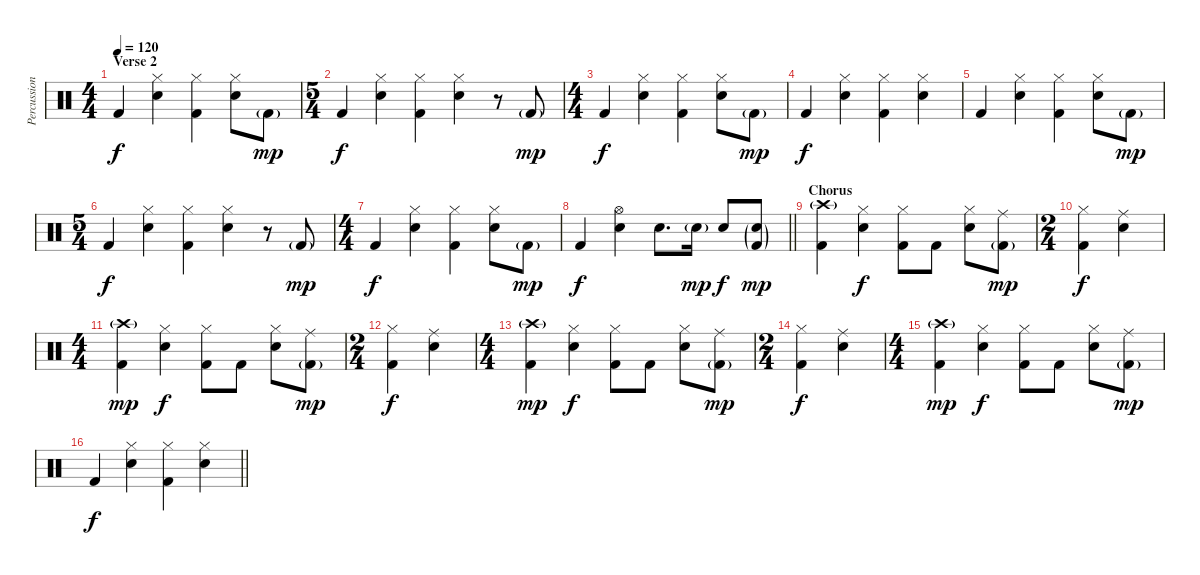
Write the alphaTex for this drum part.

\track ("Percussion" "Percussion") {instrument percussion}
\staff {score}
\articulation defaults
\ts (4 4)
\section ("" "Verse 2")
\tempo 120
\clef neutral
\ks c "Kick (hit) 2".4{dy f}
("Hi-Hat (closed)" "Snare (hit) 2").4 ("Hi-Hat (closed)" "Kick (hit) 2").4 ("Hi-Hat (closed)" "Snare (hit) 2").8 "Kick (hit) 2"{g}.8{dy mp} |
\ts (5 4)
"Kick (hit) 2".4{dy f} ("Hi-Hat (closed)" "Snare (hit) 2").4 ("Hi-Hat (closed)" "Kick (hit) 2").4 ("Hi-Hat (closed)" "Snare (hit) 2").4 r.8 "Kick (hit) 2"{g}.8{dy mp} |
\ts (4 4)
"Kick (hit) 2".4{dy f} ("Hi-Hat (closed)" "Snare (hit) 2").4 ("Hi-Hat (closed)" "Kick (hit) 2").4 ("Hi-Hat (closed)" "Snare (hit) 2").8 "Kick (hit) 2"{g}.8{dy mp} |
"Kick (hit) 2".4{dy f} ("Hi-Hat (closed)" "Snare (hit) 2").4 ("Hi-Hat (closed)" "Kick (hit) 2").4 ("Hi-Hat (closed)" "Snare (hit) 2").4 |
"Kick (hit) 2".4 ("Hi-Hat (closed)" "Snare (hit) 2").4 ("Hi-Hat (closed)" "Kick (hit) 2").4 ("Hi-Hat (closed)" "Snare (hit) 2").8 "Kick (hit) 2"{g}.8{dy mp} |
\ts (5 4)
"Kick (hit) 2".4{dy f} ("Hi-Hat (closed)" "Snare (hit) 2").4 ("Hi-Hat (closed)" "Kick (hit) 2").4 ("Hi-Hat (closed)" "Snare (hit) 2").4 r.8 "Kick (hit) 2"{g}.8{dy mp} |
\ts (4 4)
"Kick (hit) 2".4{dy f} ("Hi-Hat (closed)" "Snare (hit) 2").4 ("Hi-Hat (closed)" "Kick (hit) 2").4 ("Hi-Hat (closed)" "Snare (hit) 2").8 "Kick (hit) 2"{g}.8{dy mp} |
\barLineRight lightlight "Kick (hit) 2".4{dy f}
("Hi-Hat (open)" "Snare (hit) 2").4 "Snare (hit) 2".8{d} "Snare (hit) 2"{g}.16{dy mp} "Snare (hit) 2".8{dy f} ("Snare (hit) 2"{g} "Kick (hit) 2"{g}).8{dy mp} |
\section ("" "Chorus")
("Crash high (hit)"{g} "Kick (hit) 2").4 ("Hi-Hat (closed)" "Snare (hit) 2").4{dy f} ("Hi-Hat (closed)" "Kick (hit) 2").8 "Kick (hit) 2".8 ("Hi-Hat (closed)" "Snare (hit) 2").8 ("Ride (middle)" "Kick (hit) 2"{g}).8{dy mp} |
\ts (2 4)
("Hi-Hat (closed)" "Kick (hit) 2").4{dy f} ("Ride (middle)" "Snare (hit) 2").4 |
\ts (4 4)
("Crash high (hit)"{g} "Kick (hit) 2").4{dy mp} ("Hi-Hat (closed)" "Snare (hit) 2").4{dy f} ("Hi-Hat (closed)" "Kick (hit) 2").8 "Kick (hit) 2".8 ("Hi-Hat (closed)" "Snare (hit) 2").8 ("Ride (middle)" "Kick (hit) 2"{g}).8{dy mp} |
\ts (2 4)
("Hi-Hat (closed)" "Kick (hit) 2").4{dy f} ("Ride (middle)" "Snare (hit) 2").4 |
\ts (4 4)
("Crash high (hit)"{g} "Kick (hit) 2").4{dy mp} ("Hi-Hat (closed)" "Snare (hit) 2").4{dy f} ("Hi-Hat (closed)" "Kick (hit) 2").8 "Kick (hit) 2".8 ("Hi-Hat (closed)" "Snare (hit) 2").8 ("Ride (middle)" "Kick (hit) 2"{g}).8{dy mp} |
\ts (2 4)
("Hi-Hat (closed)" "Kick (hit) 2").4{dy f} ("Ride (middle)" "Snare (hit) 2").4 |
\ts (4 4)
("Crash high (hit)"{g} "Kick (hit) 2").4{dy mp} ("Hi-Hat (closed)" "Snare (hit) 2").4{dy f} ("Hi-Hat (closed)" "Kick (hit) 2").8 "Kick (hit) 2".8 ("Hi-Hat (closed)" "Snare (hit) 2").8 ("Ride (middle)" "Kick (hit) 2"{g}).8{dy mp} |
\barLineRight lightlight "Kick (hit) 2".4{dy f}
("Hi-Hat (closed)" "Snare (hit) 2").4 ("Hi-Hat (closed)" "Kick (hit) 2").4 ("Hi-Hat (closed)" "Snare (hit) 2").4
